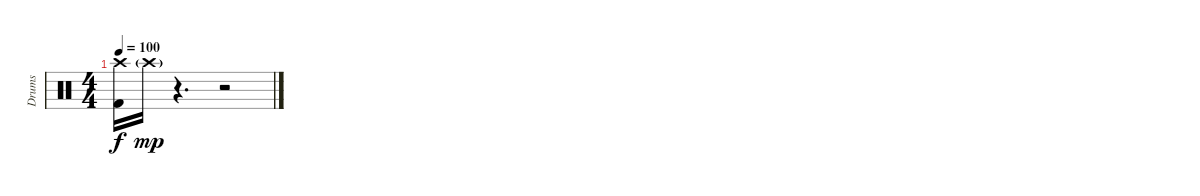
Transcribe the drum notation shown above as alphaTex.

\track ("Drums" "Drums") {instrument percussion}
\staff {score}
\articulation defaults
\ts (4 4)
\tempo 100
\clef neutral
\ks c
("Crash high (hit)" "Kick (hit) 2").16{dy f} "Crash high (hit)"{g}.16{dy mp} r.4{d} r.2
